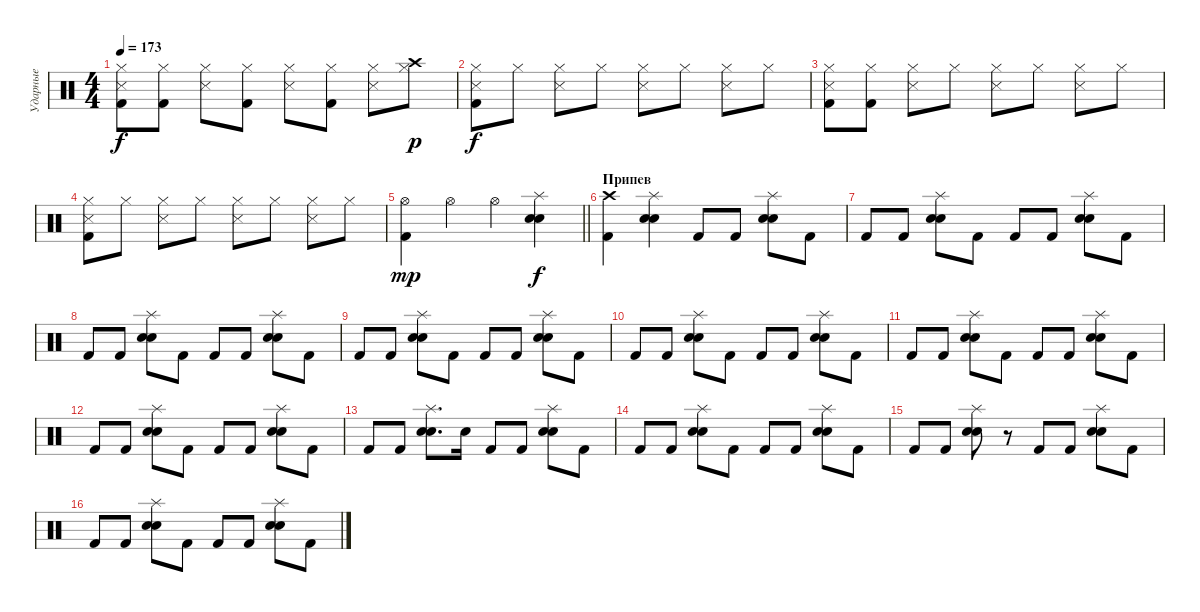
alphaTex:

\track ("Ударные" "Ударные") {instrument percussion}
\staff {score}
\articulation defaults
\ts (4 4)
\tempo 173
\clef neutral
\ks c
("Hi-Hat (closed)" "Snare (side stick) 3" "Kick (hit) 2").8{dy f} ("Hi-Hat (closed)" "Kick (hit) 2").8 ("Hi-Hat (closed)" "Snare (side stick) 3").8 ("Hi-Hat (closed)" "Kick (hit) 2").8 ("Hi-Hat (closed)" "Snare (side stick) 3").8 ("Hi-Hat (closed)" "Kick (hit) 2").8 ("Hi-Hat (closed)" "Snare (side stick) 3").8 ("Hi-Hat (closed)" "Crash high (hit)").8{dy p} |
("Hi-Hat (closed)" "Snare (side stick) 3" "Kick (hit) 2").8{dy f} "Hi-Hat (closed)".8 ("Hi-Hat (closed)" "Snare (side stick) 3").8 "Hi-Hat (closed)".8 ("Hi-Hat (closed)" "Snare (side stick) 3").8 "Hi-Hat (closed)".8 ("Hi-Hat (closed)" "Snare (side stick) 3").8 "Hi-Hat (closed)".8 |
("Hi-Hat (closed)" "Snare (side stick) 3" "Kick (hit) 2").8 ("Hi-Hat (closed)" "Kick (hit) 2").8 ("Hi-Hat (closed)" "Snare (side stick) 3").8 "Hi-Hat (closed)".8 ("Hi-Hat (closed)" "Snare (side stick) 3").8 "Hi-Hat (closed)".8 ("Hi-Hat (closed)" "Snare (side stick) 3").8 "Hi-Hat (closed)".8 |
("Hi-Hat (closed)" "Snare (side stick) 3" "Kick (hit) 2").8 "Hi-Hat (closed)".8 ("Hi-Hat (closed)" "Snare (side stick) 3").8 "Hi-Hat (closed)".8 ("Hi-Hat (closed)" "Snare (side stick) 3").8 "Hi-Hat (closed)".8 ("Hi-Hat (closed)" "Snare (side stick) 3").8 "Hi-Hat (closed)".8 |
\barLineRight lightlight
("Hi-Hat (open)" "Kick (hit) 2").4{dy mp} "Hi-Hat (open)".4 "Hi-Hat (open)".4 ("Splash (hit)" "Electric Snare (hit)" "Snare (hit) 2").4{dy f} |
\section ("" "Припев")
("Crash high (hit)" "Kick (hit) 2").4 ("Splash (hit)" "Electric Snare (hit)" "Snare (hit) 2").4 "Kick (hit) 2".8 "Kick (hit) 2".8 ("Splash (hit)" "Electric Snare (hit)" "Snare (hit) 2").8 "Kick (hit) 2".8 |
"Kick (hit) 2".8 "Kick (hit) 2".8 ("Splash (hit)" "Electric Snare (hit)" "Snare (hit) 2").8 "Kick (hit) 2".8 "Kick (hit) 2".8 "Kick (hit) 2".8 ("Splash (hit)" "Electric Snare (hit)" "Snare (hit) 2").8 "Kick (hit) 2".8 |
"Kick (hit) 2".8 "Kick (hit) 2".8 ("Splash (hit)" "Electric Snare (hit)" "Snare (hit) 2").8 "Kick (hit) 2".8 "Kick (hit) 2".8 "Kick (hit) 2".8 ("Splash (hit)" "Electric Snare (hit)" "Snare (hit) 2").8 "Kick (hit) 2".8 |
"Kick (hit) 2".8 "Kick (hit) 2".8 ("Splash (hit)" "Electric Snare (hit)" "Snare (hit) 2").8 "Kick (hit) 2".8 "Kick (hit) 2".8 "Kick (hit) 2".8 ("Splash (hit)" "Electric Snare (hit)" "Snare (hit) 2").8 "Kick (hit) 2".8 |
"Kick (hit) 2".8 "Kick (hit) 2".8 ("Splash (hit)" "Electric Snare (hit)" "Snare (hit) 2").8 "Kick (hit) 2".8 "Kick (hit) 2".8 "Kick (hit) 2".8 ("Splash (hit)" "Electric Snare (hit)" "Snare (hit) 2").8 "Kick (hit) 2".8 |
"Kick (hit) 2".8 "Kick (hit) 2".8 ("Splash (hit)" "Electric Snare (hit)" "Snare (hit) 2").8 "Kick (hit) 2".8 "Kick (hit) 2".8 "Kick (hit) 2".8 ("Splash (hit)" "Electric Snare (hit)" "Snare (hit) 2").8 "Kick (hit) 2".8 |
"Kick (hit) 2".8 "Kick (hit) 2".8 ("Splash (hit)" "Electric Snare (hit)" "Snare (hit) 2").8 "Kick (hit) 2".8 "Kick (hit) 2".8 "Kick (hit) 2".8 ("Splash (hit)" "Electric Snare (hit)" "Snare (hit) 2").8 "Kick (hit) 2".8 |
"Kick (hit) 2".8 "Kick (hit) 2".8 ("Splash (hit)" "Electric Snare (hit)" "Snare (hit) 2").8{d} "Electric Snare (hit)".16 "Kick (hit) 2".8 "Kick (hit) 2".8 ("Splash (hit)" "Electric Snare (hit)" "Snare (hit) 2").8 "Kick (hit) 2".8 |
"Kick (hit) 2".8 "Kick (hit) 2".8 ("Splash (hit)" "Electric Snare (hit)" "Snare (hit) 2").8 "Kick (hit) 2".8 "Kick (hit) 2".8 "Kick (hit) 2".8 ("Splash (hit)" "Electric Snare (hit)" "Snare (hit) 2").8 "Kick (hit) 2".8 |
"Kick (hit) 2".8 "Kick (hit) 2".8 ("Splash (hit)" "Electric Snare (hit)" "Snare (hit) 2").8 r.8 "Kick (hit) 2".8 "Kick (hit) 2".8 ("Splash (hit)" "Electric Snare (hit)" "Snare (hit) 2").8 "Kick (hit) 2".8 |
"Kick (hit) 2".8 "Kick (hit) 2".8 ("Splash (hit)" "Electric Snare (hit)" "Snare (hit) 2").8 "Kick (hit) 2".8 "Kick (hit) 2".8 "Kick (hit) 2".8 ("Splash (hit)" "Electric Snare (hit)" "Snare (hit) 2").8 "Kick (hit) 2".8
